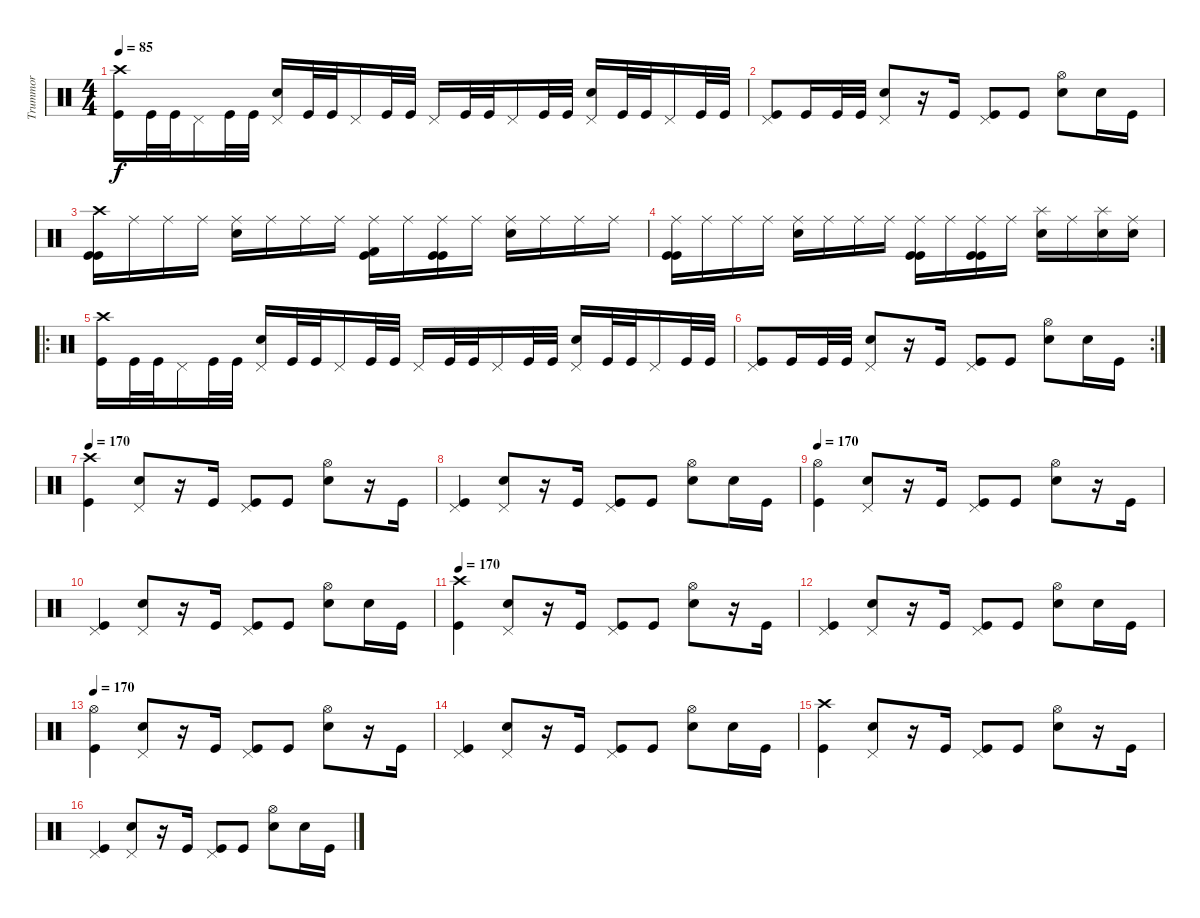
\track ("Trummor" "Trummor") {instrument percussion}
\staff {score}
\articulation defaults
\ts (4 4)
\tempo 85
\clef neutral
\ks c
("Crash high (hit)" "Kick (hit)").16{dy f} "Kick (hit)".32 "Kick (hit)".32 "Pedal Hi-Hat (hit)".16 "Kick (hit)".32 "Kick (hit)".32 ("Pedal Hi-Hat (hit)" "Snare (hit) 2").16 "Kick (hit)".32 "Kick (hit)".32 "Pedal Hi-Hat (hit)".16 "Kick (hit)".32 "Kick (hit)".32 "Pedal Hi-Hat (hit)".16 "Kick (hit)".32 "Kick (hit)".32 "Pedal Hi-Hat (hit)".16 "Kick (hit)".32 "Kick (hit)".32 ("Pedal Hi-Hat (hit)" "Snare (hit) 2").16 "Kick (hit)".32 "Kick (hit)".32 "Pedal Hi-Hat (hit)".16 "Kick (hit)".32 "Kick (hit)".32 |
("Pedal Hi-Hat (hit)" "Kick (hit)").8 "Kick (hit)".16 "Kick (hit)".32 "Kick (hit)".32 ("Pedal Hi-Hat (hit)" "Snare (hit) 2").8 r.16 "Kick (hit)".16 ("Pedal Hi-Hat (hit)" "Kick (hit)").8 "Kick (hit)".8 ("Hi-Hat (open)" "Snare (hit) 2").8 "Snare (hit) 2".16 "Kick (hit)".16 |
("Crash high (hit)" "Kick (hit)" "Kick (hit)").16 "Ride (middle)".16 "Ride (middle)".16 "Ride (middle)".16 ("Ride (middle)" "Snare (hit) 2").16 "Ride (middle)".16 "Ride (middle)".16 "Ride (middle)".16 ("Ride (middle)" "Kick (hit) 2" "Kick (hit)").16 "Ride (middle)".16 ("Ride (middle)" "Kick (hit)" "Kick (hit)").16 "Ride (middle)".16 ("Ride (middle)" "Snare (hit) 2").16 "Ride (middle)".16 "Ride (middle)".16 "Ride (middle)".16 |
("Ride (middle)" "Kick (hit)" "Kick (hit)").16 "Ride (middle)".16 "Ride (middle)".16 "Ride (middle)".16 ("Ride (middle)" "Snare (hit) 2").16 "Ride (middle)".16 "Ride (middle)".16 "Ride (middle)".16 ("Ride (middle)" "Kick (hit)" "Kick (hit)").16 "Ride (middle)".16 ("Ride (middle)" "Kick (hit)" "Kick (hit)").16 "Ride (middle)".16 ("Splash (hit)" "Snare (hit) 2").16 "Ride (middle)".16 ("Splash (hit)" "Snare (hit) 2").16 ("Ride (middle)" "Snare (hit) 2").16 |
\ro
("Crash high (hit)" "Kick (hit)").16 "Kick (hit)".32 "Kick (hit)".32 "Pedal Hi-Hat (hit)".16 "Kick (hit)".32 "Kick (hit)".32 ("Pedal Hi-Hat (hit)" "Snare (hit) 2").16 "Kick (hit)".32 "Kick (hit)".32 "Pedal Hi-Hat (hit)".16 "Kick (hit)".32 "Kick (hit)".32 "Pedal Hi-Hat (hit)".16 "Kick (hit)".32 "Kick (hit)".32 "Pedal Hi-Hat (hit)".16 "Kick (hit)".32 "Kick (hit)".32 ("Pedal Hi-Hat (hit)" "Snare (hit) 2").16 "Kick (hit)".32 "Kick (hit)".32 "Pedal Hi-Hat (hit)".16 "Kick (hit)".32 "Kick (hit)".32 |
\rc 2
("Pedal Hi-Hat (hit)" "Kick (hit)").8 "Kick (hit)".16 "Kick (hit)".32 "Kick (hit)".32 ("Pedal Hi-Hat (hit)" "Snare (hit) 2").8 r.16 "Kick (hit)".16 ("Pedal Hi-Hat (hit)" "Kick (hit)").8 "Kick (hit)".8 ("Hi-Hat (open)" "Snare (hit) 2").8 "Snare (hit) 2".16 "Kick (hit)".16 |
\tempo 170
("Crash high (hit)" "Kick (hit)").4 ("Pedal Hi-Hat (hit)" "Snare (hit) 2").8 r.16 "Kick (hit)".16 ("Pedal Hi-Hat (hit)" "Kick (hit)").8 "Kick (hit)".8 ("Hi-Hat (open)" "Snare (hit) 2").8 r.16 "Kick (hit)".16 |
("Pedal Hi-Hat (hit)" "Kick (hit)").4 ("Pedal Hi-Hat (hit)" "Snare (hit) 2").8 r.16 "Kick (hit)".16 ("Pedal Hi-Hat (hit)" "Kick (hit)").8 "Kick (hit)".8 ("Hi-Hat (open)" "Snare (hit) 2").8 "Snare (hit) 2".16 "Kick (hit)".16 |
\tempo 170
("Hi-Hat (open)" "Kick (hit)").4 ("Pedal Hi-Hat (hit)" "Snare (hit) 2").8 r.16 "Kick (hit)".16 ("Pedal Hi-Hat (hit)" "Kick (hit)").8 "Kick (hit)".8 ("Hi-Hat (open)" "Snare (hit) 2").8 r.16 "Kick (hit)".16 |
("Pedal Hi-Hat (hit)" "Kick (hit)").4 ("Pedal Hi-Hat (hit)" "Snare (hit) 2").8 r.16 "Kick (hit)".16 ("Pedal Hi-Hat (hit)" "Kick (hit)").8 "Kick (hit)".8 ("Hi-Hat (open)" "Snare (hit) 2").8 "Snare (hit) 2".16 "Kick (hit)".16 |
\tempo 170
("Crash high (hit)" "Kick (hit)").4 ("Pedal Hi-Hat (hit)" "Snare (hit) 2").8 r.16 "Kick (hit)".16 ("Pedal Hi-Hat (hit)" "Kick (hit)").8 "Kick (hit)".8 ("Hi-Hat (open)" "Snare (hit) 2").8 r.16 "Kick (hit)".16 |
("Pedal Hi-Hat (hit)" "Kick (hit)").4 ("Pedal Hi-Hat (hit)" "Snare (hit) 2").8 r.16 "Kick (hit)".16 ("Pedal Hi-Hat (hit)" "Kick (hit)").8 "Kick (hit)".8 ("Hi-Hat (open)" "Snare (hit) 2").8 "Snare (hit) 2".16 "Kick (hit)".16 |
\tempo 170
("Hi-Hat (open)" "Kick (hit)").4 ("Pedal Hi-Hat (hit)" "Snare (hit) 2").8 r.16 "Kick (hit)".16 ("Pedal Hi-Hat (hit)" "Kick (hit)").8 "Kick (hit)".8 ("Hi-Hat (open)" "Snare (hit) 2").8 r.16 "Kick (hit)".16 |
("Pedal Hi-Hat (hit)" "Kick (hit)").4 ("Pedal Hi-Hat (hit)" "Snare (hit) 2").8 r.16 "Kick (hit)".16 ("Pedal Hi-Hat (hit)" "Kick (hit)").8 "Kick (hit)".8 ("Hi-Hat (open)" "Snare (hit) 2").8 "Snare (hit) 2".16 "Kick (hit)".16 |
("Crash high (hit)" "Kick (hit)").4 ("Pedal Hi-Hat (hit)" "Snare (hit) 2").8 r.16 "Kick (hit)".16 ("Pedal Hi-Hat (hit)" "Kick (hit)").8 "Kick (hit)".8 ("Hi-Hat (open)" "Snare (hit) 2").8 r.16 "Kick (hit)".16 |
("Pedal Hi-Hat (hit)" "Kick (hit)").4 ("Pedal Hi-Hat (hit)" "Snare (hit) 2").8 r.16 "Kick (hit)".16 ("Pedal Hi-Hat (hit)" "Kick (hit)").8 "Kick (hit)".8 ("Hi-Hat (open)" "Snare (hit) 2").8 "Snare (hit) 2".16 "Kick (hit)".16
